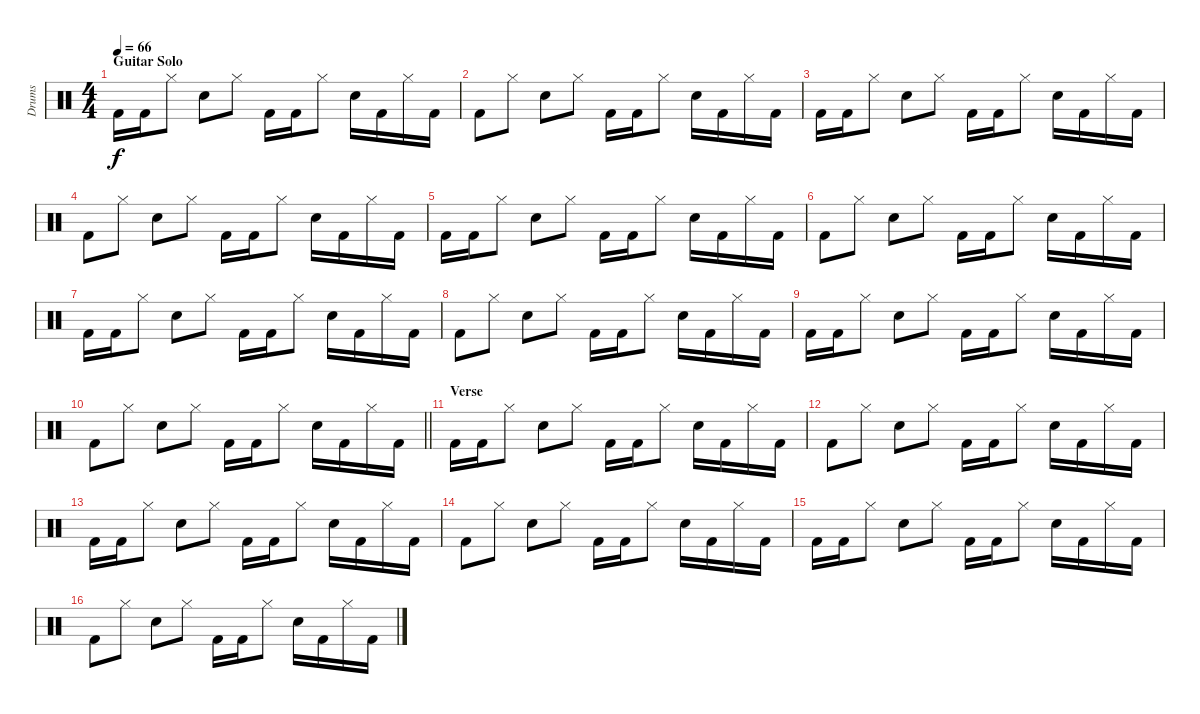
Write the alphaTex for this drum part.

\track ("Drums" "Drums") {instrument percussion}
\staff {score}
\articulation defaults
\ts (4 4)
\section ("" "Guitar Solo")
\tempo 66
\clef neutral
\ks c "Kick (hit) 2".16{dy f} "Kick (hit) 2".16 "Hi-Hat (closed)".8 "Snare (hit) 2".8 "Hi-Hat (closed)".8 "Kick (hit) 2".16 "Kick (hit) 2".16 "Hi-Hat (closed)".8 "Snare (hit) 2".16 "Kick (hit) 2".16 "Hi-Hat (closed)".16 "Kick (hit) 2".16
|
"Kick (hit) 2".8 "Hi-Hat (closed)".8 "Snare (hit) 2".8 "Hi-Hat (closed)".8 "Kick (hit) 2".16 "Kick (hit) 2".16 "Hi-Hat (closed)".8 "Snare (hit) 2".16 "Kick (hit) 2".16 "Hi-Hat (closed)".16 "Kick (hit) 2".16 |
"Kick (hit) 2".16 "Kick (hit) 2".16 "Hi-Hat (closed)".8 "Snare (hit) 2".8 "Hi-Hat (closed)".8 "Kick (hit) 2".16 "Kick (hit) 2".16 "Hi-Hat (closed)".8 "Snare (hit) 2".16 "Kick (hit) 2".16 "Hi-Hat (closed)".16 "Kick (hit) 2".16 |
"Kick (hit) 2".8 "Hi-Hat (closed)".8 "Snare (hit) 2".8 "Hi-Hat (closed)".8 "Kick (hit) 2".16 "Kick (hit) 2".16 "Hi-Hat (closed)".8 "Snare (hit) 2".16 "Kick (hit) 2".16 "Hi-Hat (closed)".16 "Kick (hit) 2".16 |
"Kick (hit) 2".16 "Kick (hit) 2".16 "Hi-Hat (closed)".8 "Snare (hit) 2".8 "Hi-Hat (closed)".8 "Kick (hit) 2".16 "Kick (hit) 2".16 "Hi-Hat (closed)".8 "Snare (hit) 2".16 "Kick (hit) 2".16 "Hi-Hat (closed)".16 "Kick (hit) 2".16 |
"Kick (hit) 2".8 "Hi-Hat (closed)".8 "Snare (hit) 2".8 "Hi-Hat (closed)".8 "Kick (hit) 2".16 "Kick (hit) 2".16 "Hi-Hat (closed)".8 "Snare (hit) 2".16 "Kick (hit) 2".16 "Hi-Hat (closed)".16 "Kick (hit) 2".16 |
"Kick (hit) 2".16 "Kick (hit) 2".16 "Hi-Hat (closed)".8 "Snare (hit) 2".8 "Hi-Hat (closed)".8 "Kick (hit) 2".16 "Kick (hit) 2".16 "Hi-Hat (closed)".8 "Snare (hit) 2".16 "Kick (hit) 2".16 "Hi-Hat (closed)".16 "Kick (hit) 2".16 |
"Kick (hit) 2".8 "Hi-Hat (closed)".8 "Snare (hit) 2".8 "Hi-Hat (closed)".8 "Kick (hit) 2".16 "Kick (hit) 2".16 "Hi-Hat (closed)".8 "Snare (hit) 2".16 "Kick (hit) 2".16 "Hi-Hat (closed)".16 "Kick (hit) 2".16 |
"Kick (hit) 2".16 "Kick (hit) 2".16 "Hi-Hat (closed)".8 "Snare (hit) 2".8 "Hi-Hat (closed)".8 "Kick (hit) 2".16 "Kick (hit) 2".16 "Hi-Hat (closed)".8 "Snare (hit) 2".16 "Kick (hit) 2".16 "Hi-Hat (closed)".16 "Kick (hit) 2".16 |
\barLineRight lightlight "Kick (hit) 2".8 "Hi-Hat (closed)".8 "Snare (hit) 2".8 "Hi-Hat (closed)".8 "Kick (hit) 2".16 "Kick (hit) 2".16 "Hi-Hat (closed)".8 "Snare (hit) 2".16 "Kick (hit) 2".16 "Hi-Hat (closed)".16 "Kick (hit) 2".16
|
\section ("" "Verse")
"Kick (hit) 2".16 "Kick (hit) 2".16 "Hi-Hat (closed)".8 "Snare (hit) 2".8 "Hi-Hat (closed)".8 "Kick (hit) 2".16 "Kick (hit) 2".16 "Hi-Hat (closed)".8 "Snare (hit) 2".16 "Kick (hit) 2".16 "Hi-Hat (closed)".16 "Kick (hit) 2".16 |
"Kick (hit) 2".8 "Hi-Hat (closed)".8 "Snare (hit) 2".8 "Hi-Hat (closed)".8 "Kick (hit) 2".16 "Kick (hit) 2".16 "Hi-Hat (closed)".8 "Snare (hit) 2".16 "Kick (hit) 2".16 "Hi-Hat (closed)".16 "Kick (hit) 2".16 |
"Kick (hit) 2".16 "Kick (hit) 2".16 "Hi-Hat (closed)".8 "Snare (hit) 2".8 "Hi-Hat (closed)".8 "Kick (hit) 2".16 "Kick (hit) 2".16 "Hi-Hat (closed)".8 "Snare (hit) 2".16 "Kick (hit) 2".16 "Hi-Hat (closed)".16 "Kick (hit) 2".16 |
"Kick (hit) 2".8 "Hi-Hat (closed)".8 "Snare (hit) 2".8 "Hi-Hat (closed)".8 "Kick (hit) 2".16 "Kick (hit) 2".16 "Hi-Hat (closed)".8 "Snare (hit) 2".16 "Kick (hit) 2".16 "Hi-Hat (closed)".16 "Kick (hit) 2".16 |
"Kick (hit) 2".16 "Kick (hit) 2".16 "Hi-Hat (closed)".8 "Snare (hit) 2".8 "Hi-Hat (closed)".8 "Kick (hit) 2".16 "Kick (hit) 2".16 "Hi-Hat (closed)".8 "Snare (hit) 2".16 "Kick (hit) 2".16 "Hi-Hat (closed)".16 "Kick (hit) 2".16 |
"Kick (hit) 2".8 "Hi-Hat (closed)".8 "Snare (hit) 2".8 "Hi-Hat (closed)".8 "Kick (hit) 2".16 "Kick (hit) 2".16 "Hi-Hat (closed)".8 "Snare (hit) 2".16 "Kick (hit) 2".16 "Hi-Hat (closed)".16 "Kick (hit) 2".16
